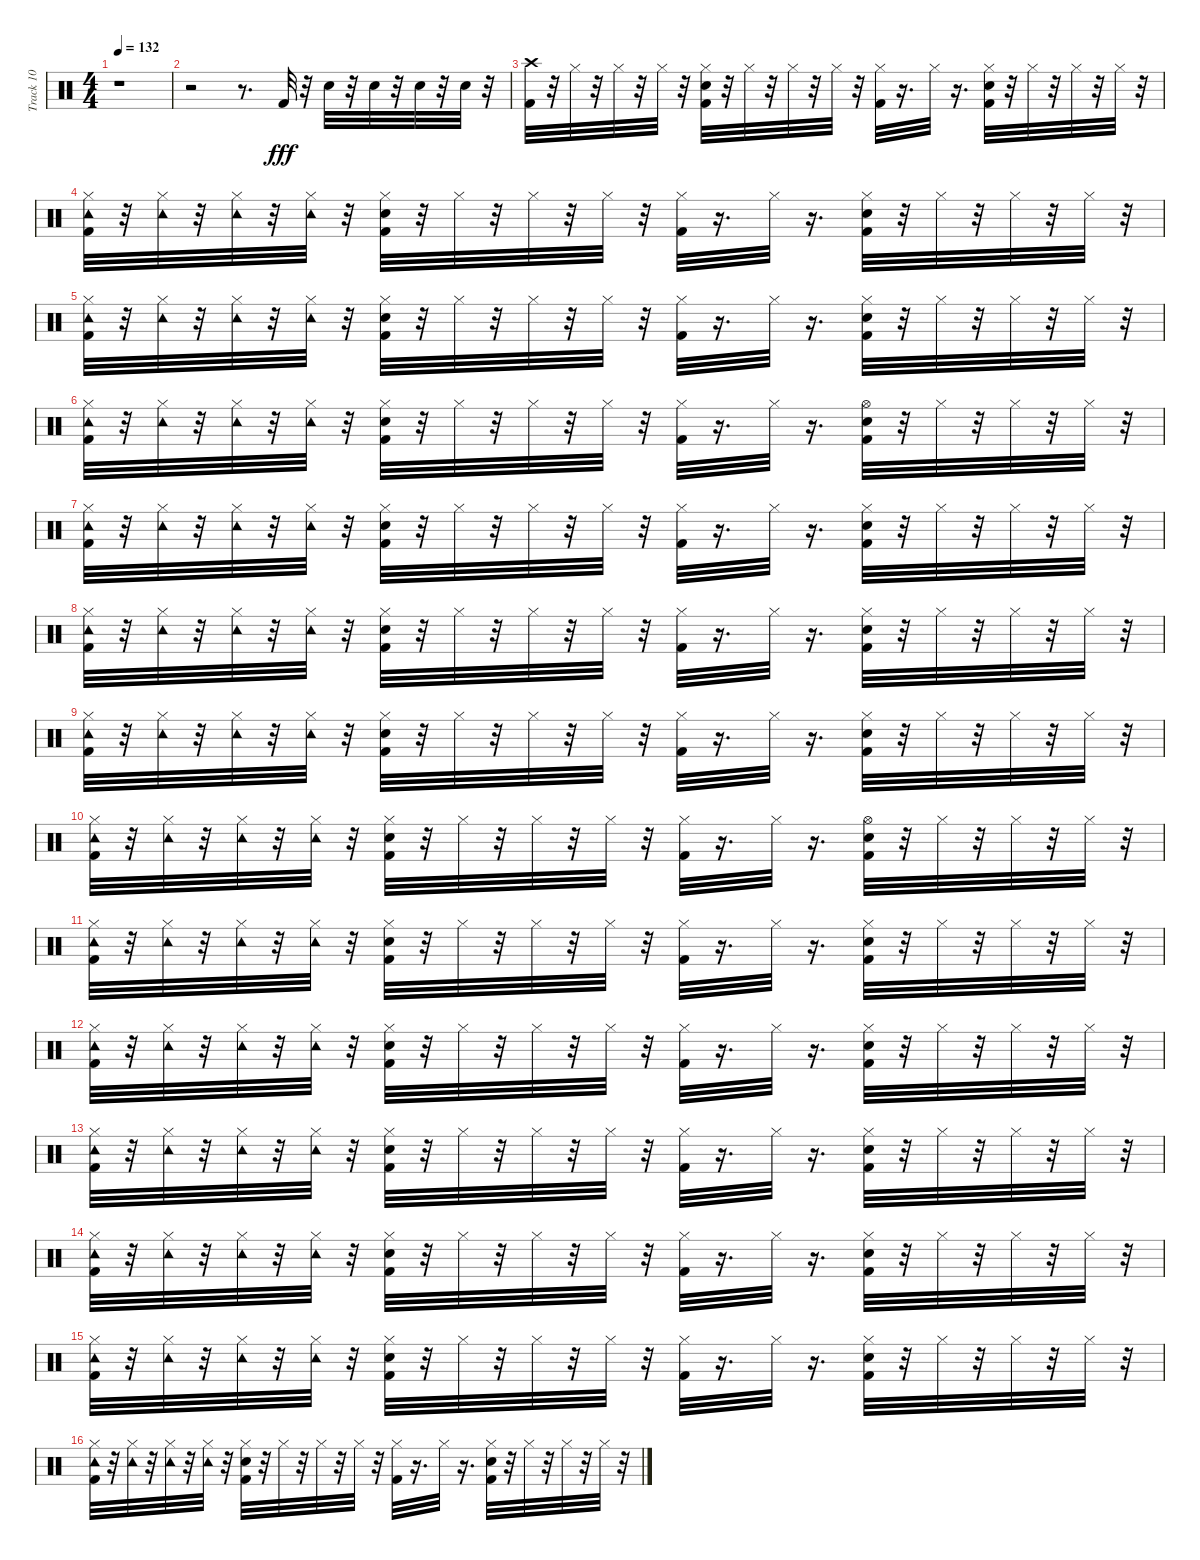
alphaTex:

\track ("Track 10" "Track 10") {instrument percussion}
\staff {score}
\articulation defaults
\ts (4 4)
\tempo 132
\clef neutral
\ks c
r.1{dy fff} |
r.2 r.8{d} "Kick (hit) 2".32 r.32 "Snare (hit) 2".32 r.32 "Snare (hit) 2".32 r.32 "Snare (hit) 2".32 r.32 "Snare (hit) 2".32 r.32 |
("Crash high (hit)" "Kick (hit) 2").32 r.32 "Hi-Hat (closed)".32 r.32 "Hi-Hat (closed)".32 r.32 "Hi-Hat (closed)".32 r.32 ("Kick (hit) 2" "Snare (hit) 2" "Hi-Hat (closed)").32 r.32 "Hi-Hat (closed)".32 r.32 "Hi-Hat (closed)".32 r.32 "Hi-Hat (closed)".32 r.32 ("Kick (hit) 2" "Hi-Hat (closed)").32 r.16{d} "Hi-Hat (closed)".32 r.16{d} ("Kick (hit) 2" "Snare (hit) 2" "Hi-Hat (closed)").32 r.32 "Hi-Hat (closed)".32 r.32 "Hi-Hat (closed)".32 r.32 "Hi-Hat (closed)".32 r.32 |
("Tambourine (hit)" "Kick (hit) 2" "Hi-Hat (closed)").32 r.32 ("Tambourine (hit)" "Hi-Hat (closed)").32 r.32 ("Tambourine (hit)" "Hi-Hat (closed)").32 r.32 ("Tambourine (hit)" "Hi-Hat (closed)").32 r.32 ("Kick (hit) 2" "Snare (hit) 2" "Hi-Hat (closed)").32 r.32 "Hi-Hat (closed)".32 r.32 "Hi-Hat (closed)".32 r.32 "Hi-Hat (closed)".32 r.32 ("Kick (hit) 2" "Hi-Hat (closed)").32 r.16{d} "Hi-Hat (closed)".32 r.16{d} ("Kick (hit) 2" "Snare (hit) 2" "Hi-Hat (closed)").32 r.32 "Hi-Hat (closed)".32 r.32 "Hi-Hat (closed)".32 r.32 "Hi-Hat (closed)".32 r.32 |
("Tambourine (hit)" "Kick (hit) 2" "Hi-Hat (closed)").32 r.32 ("Tambourine (hit)" "Hi-Hat (closed)").32 r.32 ("Tambourine (hit)" "Hi-Hat (closed)").32 r.32 ("Tambourine (hit)" "Hi-Hat (closed)").32 r.32 ("Snare (hit) 2" "Kick (hit) 2" "Hi-Hat (closed)").32 r.32 "Hi-Hat (closed)".32 r.32 "Hi-Hat (closed)".32 r.32 "Hi-Hat (closed)".32 r.32 ("Kick (hit) 2" "Hi-Hat (closed)").32 r.16{d} "Hi-Hat (closed)".32 r.16{d} ("Snare (hit) 2" "Kick (hit) 2" "Hi-Hat (closed)").32 r.32 "Hi-Hat (closed)".32 r.32 "Hi-Hat (closed)".32 r.32 "Hi-Hat (closed)".32 r.32 |
("Tambourine (hit)" "Kick (hit) 2" "Hi-Hat (closed)").32 r.32 ("Tambourine (hit)" "Hi-Hat (closed)").32 r.32 ("Tambourine (hit)" "Hi-Hat (closed)").32 r.32 ("Tambourine (hit)" "Hi-Hat (closed)").32 r.32 ("Snare (hit) 2" "Kick (hit) 2" "Hi-Hat (closed)").32 r.32 "Hi-Hat (closed)".32 r.32 "Hi-Hat (closed)".32 r.32 "Hi-Hat (closed)".32 r.32 ("Kick (hit) 2" "Hi-Hat (closed)").32 r.16{d} "Hi-Hat (closed)".32 r.16{d} ("Hi-Hat (open)" "Snare (hit) 2" "Kick (hit) 2").32 r.32 "Hi-Hat (closed)".32 r.32 "Hi-Hat (closed)".32 r.32 "Hi-Hat (closed)".32 r.32 |
("Tambourine (hit)" "Kick (hit) 2" "Hi-Hat (closed)").32 r.32 ("Tambourine (hit)" "Hi-Hat (closed)").32 r.32 ("Tambourine (hit)" "Hi-Hat (closed)").32 r.32 ("Tambourine (hit)" "Hi-Hat (closed)").32 r.32 ("Snare (hit) 2" "Kick (hit) 2" "Hi-Hat (closed)").32 r.32 "Hi-Hat (closed)".32 r.32 "Hi-Hat (closed)".32 r.32 "Hi-Hat (closed)".32 r.32 ("Kick (hit) 2" "Hi-Hat (closed)").32 r.16{d} "Hi-Hat (closed)".32 r.16{d} ("Snare (hit) 2" "Kick (hit) 2" "Hi-Hat (closed)").32 r.32 "Hi-Hat (closed)".32 r.32 "Hi-Hat (closed)".32 r.32 "Hi-Hat (closed)".32 r.32 |
("Tambourine (hit)" "Kick (hit) 2" "Hi-Hat (closed)").32 r.32 ("Tambourine (hit)" "Hi-Hat (closed)").32 r.32 ("Tambourine (hit)" "Hi-Hat (closed)").32 r.32 ("Tambourine (hit)" "Hi-Hat (closed)").32 r.32 ("Snare (hit) 2" "Kick (hit) 2" "Hi-Hat (closed)").32 r.32 "Hi-Hat (closed)".32 r.32 "Hi-Hat (closed)".32 r.32 "Hi-Hat (closed)".32 r.32 ("Kick (hit) 2" "Hi-Hat (closed)").32 r.16{d} "Hi-Hat (closed)".32 r.16{d} ("Snare (hit) 2" "Kick (hit) 2" "Hi-Hat (closed)").32 r.32 "Hi-Hat (closed)".32 r.32 "Hi-Hat (closed)".32 r.32 "Hi-Hat (closed)".32 r.32 |
("Tambourine (hit)" "Kick (hit) 2" "Hi-Hat (closed)").32 r.32 ("Tambourine (hit)" "Hi-Hat (closed)").32 r.32 ("Tambourine (hit)" "Hi-Hat (closed)").32 r.32 ("Tambourine (hit)" "Hi-Hat (closed)").32 r.32 ("Snare (hit) 2" "Kick (hit) 2" "Hi-Hat (closed)").32 r.32 "Hi-Hat (closed)".32 r.32 "Hi-Hat (closed)".32 r.32 "Hi-Hat (closed)".32 r.32 ("Kick (hit) 2" "Hi-Hat (closed)").32 r.16{d} "Hi-Hat (closed)".32 r.16{d} ("Snare (hit) 2" "Kick (hit) 2" "Hi-Hat (closed)").32 r.32 "Hi-Hat (closed)".32 r.32 "Hi-Hat (closed)".32 r.32 "Hi-Hat (closed)".32 r.32 |
("Tambourine (hit)" "Kick (hit) 2" "Hi-Hat (closed)").32 r.32 ("Tambourine (hit)" "Hi-Hat (closed)").32 r.32 ("Tambourine (hit)" "Hi-Hat (closed)").32 r.32 ("Tambourine (hit)" "Hi-Hat (closed)").32 r.32 ("Snare (hit) 2" "Kick (hit) 2" "Hi-Hat (closed)").32 r.32 "Hi-Hat (closed)".32 r.32 "Hi-Hat (closed)".32 r.32 "Hi-Hat (closed)".32 r.32 ("Kick (hit) 2" "Hi-Hat (closed)").32 r.16{d} "Hi-Hat (closed)".32 r.16{d} ("Hi-Hat (open)" "Snare (hit) 2" "Kick (hit) 2").32 r.32 "Hi-Hat (closed)".32 r.32 "Hi-Hat (closed)".32 r.32 "Hi-Hat (closed)".32 r.32 |
("Tambourine (hit)" "Kick (hit) 2" "Hi-Hat (closed)").32 r.32 ("Tambourine (hit)" "Hi-Hat (closed)").32 r.32 ("Tambourine (hit)" "Hi-Hat (closed)").32 r.32 ("Tambourine (hit)" "Hi-Hat (closed)").32 r.32 ("Snare (hit) 2" "Kick (hit) 2" "Hi-Hat (closed)").32 r.32 "Hi-Hat (closed)".32 r.32 "Hi-Hat (closed)".32 r.32 "Hi-Hat (closed)".32 r.32 ("Kick (hit) 2" "Hi-Hat (closed)").32 r.16{d} "Hi-Hat (closed)".32 r.16{d} ("Snare (hit) 2" "Kick (hit) 2" "Hi-Hat (closed)").32 r.32 "Hi-Hat (closed)".32 r.32 "Hi-Hat (closed)".32 r.32 "Hi-Hat (closed)".32 r.32 |
("Tambourine (hit)" "Kick (hit) 2" "Hi-Hat (closed)").32 r.32 ("Tambourine (hit)" "Hi-Hat (closed)").32 r.32 ("Tambourine (hit)" "Hi-Hat (closed)").32 r.32 ("Tambourine (hit)" "Hi-Hat (closed)").32 r.32 ("Snare (hit) 2" "Kick (hit) 2" "Hi-Hat (closed)").32 r.32 "Hi-Hat (closed)".32 r.32 "Hi-Hat (closed)".32 r.32 "Hi-Hat (closed)".32 r.32 ("Kick (hit) 2" "Hi-Hat (closed)").32 r.16{d} "Hi-Hat (closed)".32 r.16{d} ("Snare (hit) 2" "Kick (hit) 2" "Hi-Hat (closed)").32 r.32 "Hi-Hat (closed)".32 r.32 "Hi-Hat (closed)".32 r.32 "Hi-Hat (closed)".32 r.32 |
("Tambourine (hit)" "Kick (hit) 2" "Hi-Hat (closed)").32 r.32 ("Tambourine (hit)" "Hi-Hat (closed)").32 r.32 ("Tambourine (hit)" "Hi-Hat (closed)").32 r.32 ("Tambourine (hit)" "Hi-Hat (closed)").32 r.32 ("Snare (hit) 2" "Kick (hit) 2" "Hi-Hat (closed)").32 r.32 "Hi-Hat (closed)".32 r.32 "Hi-Hat (closed)".32 r.32 "Hi-Hat (closed)".32 r.32 ("Kick (hit) 2" "Hi-Hat (closed)").32 r.16{d} "Hi-Hat (closed)".32 r.16{d} ("Snare (hit) 2" "Kick (hit) 2" "Hi-Hat (closed)").32 r.32 "Hi-Hat (closed)".32 r.32 "Hi-Hat (closed)".32 r.32 "Hi-Hat (closed)".32 r.32 |
("Tambourine (hit)" "Kick (hit) 2" "Hi-Hat (closed)").32 r.32 ("Tambourine (hit)" "Hi-Hat (closed)").32 r.32 ("Tambourine (hit)" "Hi-Hat (closed)").32 r.32 ("Tambourine (hit)" "Hi-Hat (closed)").32 r.32 ("Snare (hit) 2" "Kick (hit) 2" "Hi-Hat (closed)").32 r.32 "Hi-Hat (closed)".32 r.32 "Hi-Hat (closed)".32 r.32 "Hi-Hat (closed)".32 r.32 ("Kick (hit) 2" "Hi-Hat (closed)").32 r.16{d} "Hi-Hat (closed)".32 r.16{d} ("Snare (hit) 2" "Kick (hit) 2" "Hi-Hat (closed)").32 r.32 "Hi-Hat (closed)".32 r.32 "Hi-Hat (closed)".32 r.32 "Hi-Hat (closed)".32 r.32 |
("Tambourine (hit)" "Kick (hit) 2" "Hi-Hat (closed)").32 r.32 ("Tambourine (hit)" "Hi-Hat (closed)").32 r.32 ("Tambourine (hit)" "Hi-Hat (closed)").32 r.32 ("Tambourine (hit)" "Hi-Hat (closed)").32 r.32 ("Snare (hit) 2" "Kick (hit) 2" "Hi-Hat (closed)").32 r.32 "Hi-Hat (closed)".32 r.32 "Hi-Hat (closed)".32 r.32 "Hi-Hat (closed)".32 r.32 ("Kick (hit) 2" "Hi-Hat (closed)").32 r.16{d} "Hi-Hat (closed)".32 r.16{d} ("Snare (hit) 2" "Kick (hit) 2" "Hi-Hat (closed)").32 r.32 "Hi-Hat (closed)".32 r.32 "Hi-Hat (closed)".32 r.32 "Hi-Hat (closed)".32 r.32 |
("Tambourine (hit)" "Kick (hit) 2" "Hi-Hat (closed)").32 r.32 ("Tambourine (hit)" "Hi-Hat (closed)").32 r.32 ("Tambourine (hit)" "Hi-Hat (closed)").32 r.32 ("Tambourine (hit)" "Hi-Hat (closed)").32 r.32 ("Snare (hit) 2" "Kick (hit) 2" "Hi-Hat (closed)").32 r.32 "Hi-Hat (closed)".32 r.32 "Hi-Hat (closed)".32 r.32 "Hi-Hat (closed)".32 r.32 ("Kick (hit) 2" "Hi-Hat (closed)").32 r.16{d} "Hi-Hat (closed)".32 r.16{d} ("Snare (hit) 2" "Kick (hit) 2" "Hi-Hat (closed)").32 r.32 "Hi-Hat (closed)".32 r.32 "Hi-Hat (closed)".32 r.32 "Hi-Hat (closed)".32 r.32
